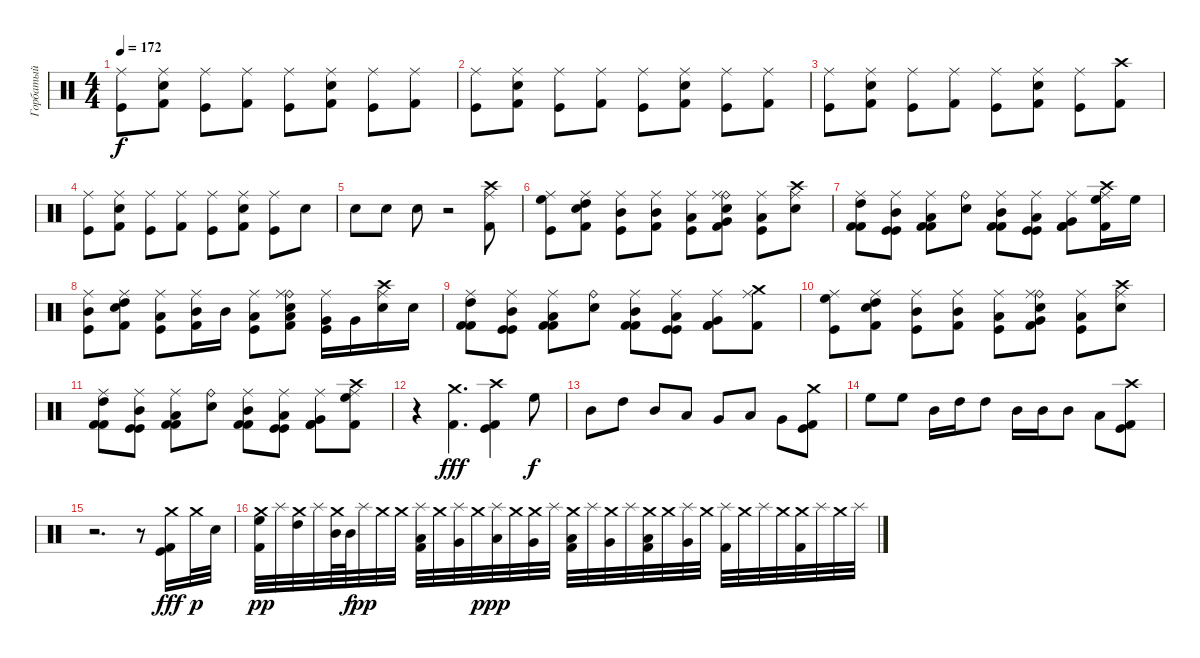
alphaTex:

\track ("Горбатый" "Горбатый") {instrument percussion}
\staff {score}
\articulation defaults
\ts (4 4)
\tempo 172
\clef neutral
\ks c
("Ride (middle)" "Kick (hit)").8{dy f} ("Electric Snare (hit)" "Ride (middle)" "Kick (hit) 2").8 ("Ride (middle)" "Kick (hit)").8 ("Ride (middle)" "Kick (hit) 2").8 ("Ride (middle)" "Kick (hit)").8 ("Electric Snare (hit)" "Ride (middle)" "Kick (hit) 2").8 ("Ride (middle)" "Kick (hit)").8 ("Ride (middle)" "Kick (hit) 2").8 |
("Ride (middle)" "Kick (hit)").8 ("Electric Snare (hit)" "Ride (middle)" "Kick (hit) 2").8 ("Ride (middle)" "Kick (hit)").8 ("Ride (middle)" "Kick (hit) 2").8 ("Ride (middle)" "Kick (hit)").8 ("Electric Snare (hit)" "Ride (middle)" "Kick (hit) 2").8 ("Ride (middle)" "Kick (hit)").8 ("Ride (middle)" "Kick (hit) 2").8 |
("Ride (middle)" "Kick (hit)").8 ("Electric Snare (hit)" "Ride (middle)" "Kick (hit) 2").8 ("Ride (middle)" "Kick (hit)").8 ("Ride (middle)" "Kick (hit) 2").8 ("Ride (middle)" "Kick (hit)").8 ("Electric Snare (hit)" "Ride (middle)" "Kick (hit) 2").8 ("Ride (middle)" "Kick (hit)").8 ("Crash high (hit)" "Kick (hit) 2").8 |
("Ride (middle)" "Kick (hit)").8 ("Electric Snare (hit)" "Ride (middle)" "Kick (hit) 2").8 ("Ride (middle)" "Kick (hit)").8 ("Ride (middle)" "Kick (hit) 2").8 ("Ride (middle)" "Kick (hit)").8 ("Electric Snare (hit)" "Ride (middle)" "Kick (hit) 2").8 ("Ride (middle)" "Kick (hit)").8 "Electric Snare (hit)".8 |
"Electric Snare (hit)".8 "Electric Snare (hit)".8 "Electric Snare (hit)".8 r.2 ("Crash high (hit)" "Ride (middle)" "Kick (hit) 2").8 |
("Ride (middle)" "High Floor Tom (hit)" "Kick (hit)").8 ("Electric Snare (hit)" "Ride (middle)" "High Tom (hit)" "Kick (hit) 2").8 ("Ride (middle)" "Mid Tom (hit)" "Kick (hit)").8 ("Ride (middle)" "Mid Tom (hit)" "Kick (hit) 2").8 ("Ride (middle)" "Low Tom (hit)" "Kick (hit)").8 ("Ride (bell)" "Electric Snare (hit)" "Ride (middle)" "Very Low Tom (hit)" "Kick (hit) 2").8 ("Ride (middle)" "Low Floor Tom (hit)" "Kick (hit)").8 ("Ride (middle)" "Electric Snare (hit)" "Crash high (hit)").8 |
("Ride (middle)" "Kick (hit) 2" "Kick (hit) 2" "High Tom (hit)").8 ("Ride (middle)" "Kick (hit)" "Kick (hit)" "Mid Tom (hit)").8 ("Ride (middle)" "Kick (hit) 2" "Kick (hit) 2" "Low Tom (hit)").8 ("Ride (bell)" "Electric Snare (hit)").8 ("Ride (middle)" "Kick (hit) 2" "Kick (hit) 2" "Mid Tom (hit)").8 ("Ride (middle)" "Kick (hit)" "Kick (hit)" "Low Tom (hit)").8 ("Ride (middle)" "Kick (hit) 2" "Kick (hit) 2" "Very Low Tom (hit)").8 ("Crash high (hit)" "Ride (middle)" "High Floor Tom (hit)" "Kick (hit) 2").16 "High Floor Tom (hit)".16 |
("Ride (middle)" "Mid Tom (hit)" "Kick (hit)").8 ("Electric Snare (hit)" "Ride (middle)" "High Tom (hit)" "Kick (hit) 2").8 ("Ride (middle)" "Low Tom (hit)" "Kick (hit)").8 ("Ride (middle)" "Mid Tom (hit)" "Kick (hit) 2").16 "Mid Tom (hit)".16 ("Ride (middle)" "Low Tom (hit)" "Kick (hit)").8 ("Ride (bell)" "Electric Snare (hit)" "Ride (middle)" "Low Tom (hit)" "Kick (hit) 2").8 ("Ride (middle)" "Very Low Tom (hit)" "Kick (hit)").16 "Very Low Tom (hit)".16 ("Ride (middle)" "Electric Snare (hit)" "Crash high (hit)").16 "Electric Snare (hit)".16 |
("Ride (middle)" "Kick (hit) 2" "Kick (hit) 2" "High Tom (hit)").8 ("Ride (middle)" "Kick (hit)" "Kick (hit)" "Mid Tom (hit)").8 ("Ride (middle)" "Kick (hit) 2" "Kick (hit) 2" "Low Tom (hit)").8 ("Ride (bell)" "Electric Snare (hit)").8 ("Ride (middle)" "Kick (hit) 2" "Kick (hit) 2" "Mid Tom (hit)").8 ("Ride (middle)" "Kick (hit)" "Kick (hit)" "Low Tom (hit)").8 ("Ride (middle)" "Kick (hit) 2" "Kick (hit) 2" "Very Low Tom (hit)").8 ("Ride (middle)" "Crash medium (hit)" "Kick (hit) 2").8 |
("Ride (middle)" "High Floor Tom (hit)" "Kick (hit)").8 ("Electric Snare (hit)" "Ride (middle)" "High Tom (hit)" "Kick (hit) 2").8 ("Ride (middle)" "Mid Tom (hit)" "Kick (hit)").8 ("Ride (middle)" "Mid Tom (hit)" "Kick (hit) 2").8 ("Ride (middle)" "Low Tom (hit)" "Kick (hit)").8 ("Ride (bell)" "Electric Snare (hit)" "Ride (middle)" "Very Low Tom (hit)" "Kick (hit) 2").8 ("Ride (middle)" "Low Floor Tom (hit)" "Kick (hit)").8 ("Ride (middle)" "Electric Snare (hit)" "Crash high (hit)").8 |
("Ride (middle)" "Kick (hit) 2" "Kick (hit) 2" "High Tom (hit)").8 ("Ride (middle)" "Kick (hit)" "Kick (hit)" "Mid Tom (hit)").8 ("Ride (middle)" "Kick (hit) 2" "Kick (hit) 2" "Low Tom (hit)").8 ("Ride (bell)" "Electric Snare (hit)").8 ("Ride (middle)" "Kick (hit) 2" "Kick (hit) 2" "Mid Tom (hit)").8 ("Ride (middle)" "Kick (hit)" "Kick (hit)" "Low Tom (hit)").8 ("Ride (middle)" "Kick (hit) 2" "Kick (hit) 2" "Very Low Tom (hit)").8 ("Crash high (hit)" "Ride (middle)" "High Floor Tom (hit)" "Kick (hit) 2").8 |
r.4 ("Crash medium (hit)" "Kick (hit) 2").4{d dy fff} ("Kick (hit)" "Kick (hit) 2" "Crash high (hit)").4 "High Floor Tom (hit)".8{dy f} |
"Mid Tom (hit)".8 "High Tom (hit)".8 "Mid Tom (hit)".8 "Low Tom (hit)".8 "Very Low Tom (hit)".8 "Low Floor Tom (hit)".8 "Very Low Tom (hit)".8 ("Kick (hit) 2" "Kick (hit)" "Crash medium (hit)").8 |
"High Floor Tom (hit)".8 "High Floor Tom (hit)".8 "Mid Tom (hit)".16 "High Tom (hit)".16 "High Tom (hit)".8 "Mid Tom (hit)".16 "Mid Tom (hit)".16 "Mid Tom (hit)".8 "Low Tom (hit)".8 ("Kick (hit) 2" "Kick (hit)" "Crash high (hit)").8 |
r.2{d} r.8 ("Kick (hit) 2" "Kick (hit)" "Crash medium (hit)").16{dy fff} "Crash medium (hit)".32{dy p} "Snare (hit)".32 |
("Kick (hit) 2" "High Floor Tom (hit)" "Crash medium (hit)").32{dy pp} "Splash (hit)".32 ("High Tom (hit)" "Crash medium (hit)").32 "Splash (hit)".32 ("Mid Tom (hit)" "Crash medium (hit)").64 "Mid Tom (hit)".64{dy f} "Splash (hit)".32{dy pp} "Crash medium (hit)".32 "Crash medium (hit)".32 ("Kick (hit) 2" "Low Tom (hit)" "Splash (hit)").32 "Crash medium (hit)".32 ("Very Low Tom (hit)" "Splash (hit)").32 "Crash medium (hit)".32{dy p} ("Low Floor Tom (hit)" "Splash (hit)").32{dy pp} "Crash medium (hit)".32 ("Very Low Tom (hit)" "Crash medium (hit)").32 "Splash (hit)".32 ("Kick (hit) 2" "Low Floor Tom (hit)" "Crash medium (hit)").32 "Splash (hit)".32 ("Very Low Tom (hit)" "Crash medium (hit)").32 "Splash (hit)".32 ("Kick (hit) 2" "Low Floor Tom (hit)" "Crash medium (hit)").32 "Crash medium (hit)".32 ("Very Low Tom (hit)" "Splash (hit)").32 "Crash medium (hit)".32 ("Kick (hit) 2" "Splash (hit)").32 "Crash medium (hit)".32 "Splash (hit)".32 "Crash medium (hit)".32 ("Kick (hit) 2" "Crash medium (hit)").32 "Splash (hit)".32 "Crash medium (hit)".32 "Splash (hit)".32
